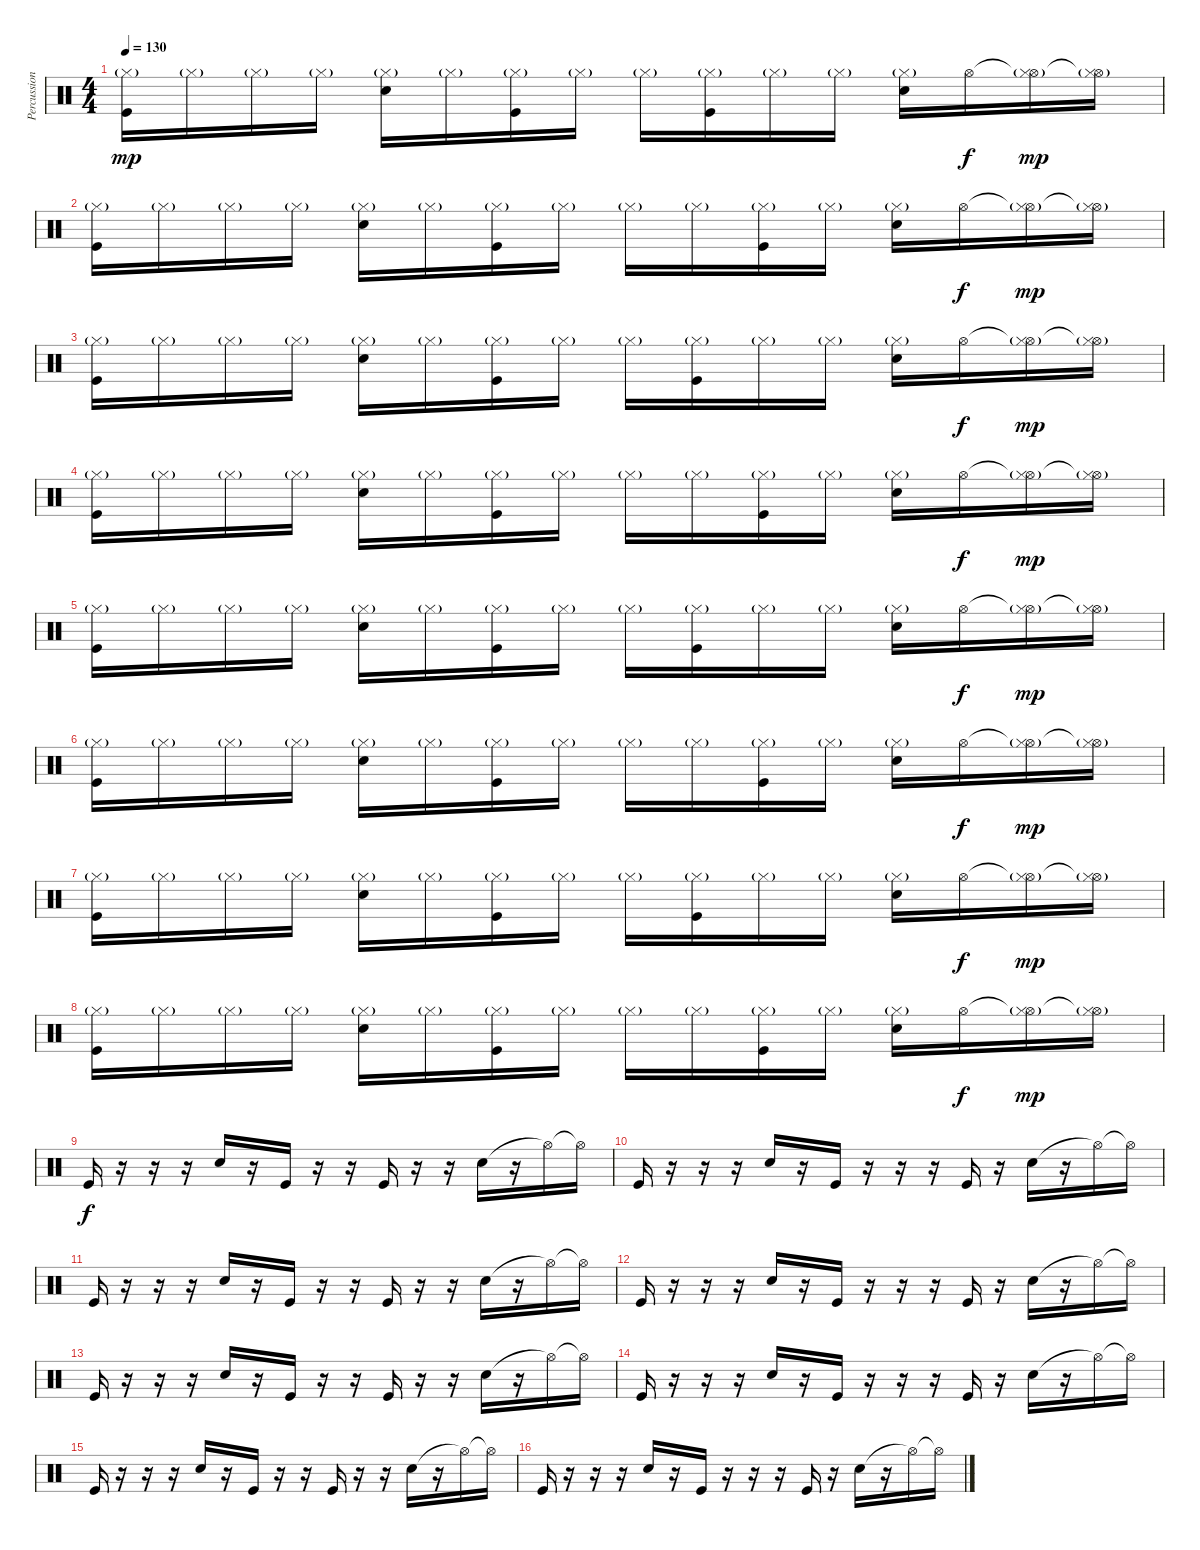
\track ("Percussion" "Percussion") {instrument percussion}
\staff {score}
\articulation defaults
\ts (4 4)
\tempo 130
\clef neutral
\ks c
("Hi-Hat (closed)"{g} "Kick (hit)").16{dy mp} "Hi-Hat (closed)"{g}.16 "Hi-Hat (closed)"{g}.16 "Hi-Hat (closed)"{g}.16 ("Hi-Hat (closed)"{g} "Hand Clap (hit)").16 "Hi-Hat (closed)"{g}.16 ("Hi-Hat (closed)"{g} "Kick (hit)").16 "Hi-Hat (closed)"{g}.16 "Hi-Hat (closed)"{g}.16 ("Hi-Hat (closed)"{g} "Kick (hit)").16 "Hi-Hat (closed)"{g}.16 "Hi-Hat (closed)"{g}.16 ("Hi-Hat (closed)"{g} "Hand Clap (hit)").16 "Hi-Hat (open)".16{dy f} ("Hi-Hat (open)"{t} "Hi-Hat (closed)"{g}).16{dy mp} ("Hi-Hat (open)"{t} "Hi-Hat (closed)"{g}).16 |
("Hi-Hat (closed)"{g} "Kick (hit)").16 "Hi-Hat (closed)"{g}.16 "Hi-Hat (closed)"{g}.16 "Hi-Hat (closed)"{g}.16 ("Hi-Hat (closed)"{g} "Hand Clap (hit)").16 "Hi-Hat (closed)"{g}.16 ("Hi-Hat (closed)"{g} "Kick (hit)").16 "Hi-Hat (closed)"{g}.16 "Hi-Hat (closed)"{g}.16 "Hi-Hat (closed)"{g}.16 ("Hi-Hat (closed)"{g} "Kick (hit)").16 "Hi-Hat (closed)"{g}.16 ("Hi-Hat (closed)"{g} "Hand Clap (hit)").16 "Hi-Hat (open)".16{dy f} ("Hi-Hat (open)"{t} "Hi-Hat (closed)"{g}).16{dy mp} ("Hi-Hat (open)"{t} "Hi-Hat (closed)"{g}).16 |
("Hi-Hat (closed)"{g} "Kick (hit)").16 "Hi-Hat (closed)"{g}.16 "Hi-Hat (closed)"{g}.16 "Hi-Hat (closed)"{g}.16 ("Hi-Hat (closed)"{g} "Hand Clap (hit)").16 "Hi-Hat (closed)"{g}.16 ("Hi-Hat (closed)"{g} "Kick (hit)").16 "Hi-Hat (closed)"{g}.16 "Hi-Hat (closed)"{g}.16 ("Hi-Hat (closed)"{g} "Kick (hit)").16 "Hi-Hat (closed)"{g}.16 "Hi-Hat (closed)"{g}.16 ("Hi-Hat (closed)"{g} "Hand Clap (hit)").16 "Hi-Hat (open)".16{dy f} ("Hi-Hat (open)"{t} "Hi-Hat (closed)"{g}).16{dy mp} ("Hi-Hat (open)"{t} "Hi-Hat (closed)"{g}).16 |
("Hi-Hat (closed)"{g} "Kick (hit)").16 "Hi-Hat (closed)"{g}.16 "Hi-Hat (closed)"{g}.16 "Hi-Hat (closed)"{g}.16 ("Hi-Hat (closed)"{g} "Hand Clap (hit)").16 "Hi-Hat (closed)"{g}.16 ("Hi-Hat (closed)"{g} "Kick (hit)").16 "Hi-Hat (closed)"{g}.16 "Hi-Hat (closed)"{g}.16 "Hi-Hat (closed)"{g}.16 ("Hi-Hat (closed)"{g} "Kick (hit)").16 "Hi-Hat (closed)"{g}.16 ("Hi-Hat (closed)"{g} "Hand Clap (hit)").16 "Hi-Hat (open)".16{dy f} ("Hi-Hat (open)"{t} "Hi-Hat (closed)"{g}).16{dy mp} ("Hi-Hat (open)"{t} "Hi-Hat (closed)"{g}).16 |
("Hi-Hat (closed)"{g} "Kick (hit)").16 "Hi-Hat (closed)"{g}.16 "Hi-Hat (closed)"{g}.16 "Hi-Hat (closed)"{g}.16 ("Hi-Hat (closed)"{g} "Hand Clap (hit)").16 "Hi-Hat (closed)"{g}.16 ("Hi-Hat (closed)"{g} "Kick (hit)").16 "Hi-Hat (closed)"{g}.16 "Hi-Hat (closed)"{g}.16 ("Hi-Hat (closed)"{g} "Kick (hit)").16 "Hi-Hat (closed)"{g}.16 "Hi-Hat (closed)"{g}.16 ("Hi-Hat (closed)"{g} "Hand Clap (hit)").16 "Hi-Hat (open)".16{dy f} ("Hi-Hat (open)"{t} "Hi-Hat (closed)"{g}).16{dy mp} ("Hi-Hat (open)"{t} "Hi-Hat (closed)"{g}).16 |
("Hi-Hat (closed)"{g} "Kick (hit)").16 "Hi-Hat (closed)"{g}.16 "Hi-Hat (closed)"{g}.16 "Hi-Hat (closed)"{g}.16 ("Hi-Hat (closed)"{g} "Hand Clap (hit)").16 "Hi-Hat (closed)"{g}.16 ("Hi-Hat (closed)"{g} "Kick (hit)").16 "Hi-Hat (closed)"{g}.16 "Hi-Hat (closed)"{g}.16 "Hi-Hat (closed)"{g}.16 ("Hi-Hat (closed)"{g} "Kick (hit)").16 "Hi-Hat (closed)"{g}.16 ("Hi-Hat (closed)"{g} "Hand Clap (hit)").16 "Hi-Hat (open)".16{dy f} ("Hi-Hat (open)"{t} "Hi-Hat (closed)"{g}).16{dy mp} ("Hi-Hat (open)"{t} "Hi-Hat (closed)"{g}).16 |
("Hi-Hat (closed)"{g} "Kick (hit)").16 "Hi-Hat (closed)"{g}.16 "Hi-Hat (closed)"{g}.16 "Hi-Hat (closed)"{g}.16 ("Hi-Hat (closed)"{g} "Hand Clap (hit)").16 "Hi-Hat (closed)"{g}.16 ("Hi-Hat (closed)"{g} "Kick (hit)").16 "Hi-Hat (closed)"{g}.16 "Hi-Hat (closed)"{g}.16 ("Hi-Hat (closed)"{g} "Kick (hit)").16 "Hi-Hat (closed)"{g}.16 "Hi-Hat (closed)"{g}.16 ("Hi-Hat (closed)"{g} "Hand Clap (hit)").16 "Hi-Hat (open)".16{dy f} ("Hi-Hat (open)"{t} "Hi-Hat (closed)"{g}).16{dy mp} ("Hi-Hat (open)"{t} "Hi-Hat (closed)"{g}).16 |
("Hi-Hat (closed)"{g} "Kick (hit)").16 "Hi-Hat (closed)"{g}.16 "Hi-Hat (closed)"{g}.16 "Hi-Hat (closed)"{g}.16 ("Hi-Hat (closed)"{g} "Hand Clap (hit)").16 "Hi-Hat (closed)"{g}.16 ("Hi-Hat (closed)"{g} "Kick (hit)").16 "Hi-Hat (closed)"{g}.16 "Hi-Hat (closed)"{g}.16 "Hi-Hat (closed)"{g}.16 ("Hi-Hat (closed)"{g} "Kick (hit)").16 "Hi-Hat (closed)"{g}.16 ("Hi-Hat (closed)"{g} "Hand Clap (hit)").16 "Hi-Hat (open)".16{dy f} ("Hi-Hat (open)"{t} "Hi-Hat (closed)"{g}).16{dy mp} ("Hi-Hat (open)"{t} "Hi-Hat (closed)"{g}).16 |
"Kick (hit)".16{dy f} r.16 r.16 r.16 "Hand Clap (hit)".16 r.16 "Kick (hit)".16 r.16 r.16 "Kick (hit)".16 r.16 r.16 "Hand Clap (hit)".16 r.16 "Hi-Hat (open)"{t}.16 "Hi-Hat (open)"{t}.16 |
"Kick (hit)".16 r.16 r.16 r.16 "Hand Clap (hit)".16 r.16 "Kick (hit)".16 r.16 r.16 r.16 "Kick (hit)".16 r.16 "Hand Clap (hit)".16 r.16 "Hi-Hat (open)"{t}.16 "Hi-Hat (open)"{t}.16 |
"Kick (hit)".16 r.16 r.16 r.16 "Hand Clap (hit)".16 r.16 "Kick (hit)".16 r.16 r.16 "Kick (hit)".16 r.16 r.16 "Hand Clap (hit)".16 r.16 "Hi-Hat (open)"{t}.16 "Hi-Hat (open)"{t}.16 |
"Kick (hit)".16 r.16 r.16 r.16 "Hand Clap (hit)".16 r.16 "Kick (hit)".16 r.16 r.16 r.16 "Kick (hit)".16 r.16 "Hand Clap (hit)".16 r.16 "Hi-Hat (open)"{t}.16 "Hi-Hat (open)"{t}.16 |
"Kick (hit)".16 r.16 r.16 r.16 "Hand Clap (hit)".16 r.16 "Kick (hit)".16 r.16 r.16 "Kick (hit)".16 r.16 r.16 "Hand Clap (hit)".16 r.16 "Hi-Hat (open)"{t}.16 "Hi-Hat (open)"{t}.16 |
"Kick (hit)".16 r.16 r.16 r.16 "Hand Clap (hit)".16 r.16 "Kick (hit)".16 r.16 r.16 r.16 "Kick (hit)".16 r.16 "Hand Clap (hit)".16 r.16 "Hi-Hat (open)"{t}.16 "Hi-Hat (open)"{t}.16 |
"Kick (hit)".16 r.16 r.16 r.16 "Hand Clap (hit)".16 r.16 "Kick (hit)".16 r.16 r.16 "Kick (hit)".16 r.16 r.16 "Hand Clap (hit)".16 r.16 "Hi-Hat (open)"{t}.16 "Hi-Hat (open)"{t}.16 |
"Kick (hit)".16 r.16 r.16 r.16 "Hand Clap (hit)".16 r.16 "Kick (hit)".16 r.16 r.16 r.16 "Kick (hit)".16 r.16 "Hand Clap (hit)".16 r.16 "Hi-Hat (open)"{t}.16 "Hi-Hat (open)"{t}.16
